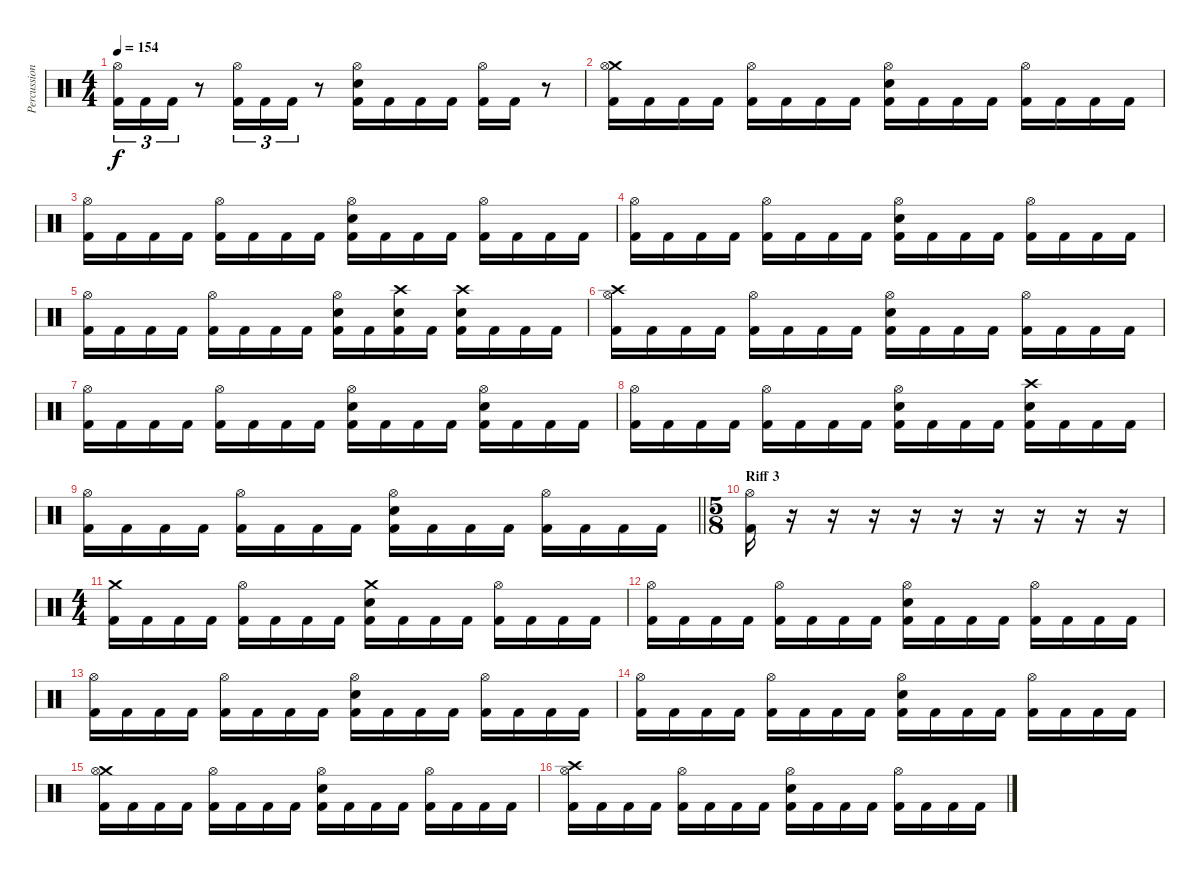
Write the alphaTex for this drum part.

\track ("Percussion" "Percussion") {instrument percussion}
\staff {score}
\articulation defaults
\ts (4 4)
\tempo 154
\clef neutral
\ks c
("Hi-Hat (open)" "Kick (hit) 2").16{tu (3 2) dy f} "Kick (hit) 2".16{tu (3 2)} "Kick (hit) 2".16{tu (3 2)} r.8 ("Hi-Hat (open)" "Kick (hit) 2").16{tu (3 2)} "Kick (hit) 2".16{tu (3 2)} "Kick (hit) 2".16{tu (3 2)} r.8 ("Hi-Hat (open)" "Electric Snare (hit)" "Kick (hit) 2").16 "Kick (hit) 2".16 "Kick (hit) 2".16 "Kick (hit) 2".16 ("Hi-Hat (open)" "Kick (hit) 2").16 "Kick (hit) 2".16 r.8 |
("Crash medium (hit)" "Hi-Hat (open)" "Kick (hit) 2").16 "Kick (hit) 2".16 "Kick (hit) 2".16 "Kick (hit) 2".16 ("Hi-Hat (open)" "Kick (hit) 2").16 "Kick (hit) 2".16 "Kick (hit) 2".16 "Kick (hit) 2".16 ("Hi-Hat (open)" "Electric Snare (hit)" "Kick (hit) 2").16 "Kick (hit) 2".16 "Kick (hit) 2".16 "Kick (hit) 2".16 ("Hi-Hat (open)" "Kick (hit) 2").16 "Kick (hit) 2".16 "Kick (hit) 2".16 "Kick (hit) 2".16 |
("Hi-Hat (open)" "Kick (hit) 2").16 "Kick (hit) 2".16 "Kick (hit) 2".16 "Kick (hit) 2".16 ("Hi-Hat (open)" "Kick (hit) 2").16 "Kick (hit) 2".16 "Kick (hit) 2".16 "Kick (hit) 2".16 ("Hi-Hat (open)" "Electric Snare (hit)" "Kick (hit) 2").16 "Kick (hit) 2".16 "Kick (hit) 2".16 "Kick (hit) 2".16 ("Hi-Hat (open)" "Kick (hit) 2").16 "Kick (hit) 2".16 "Kick (hit) 2".16 "Kick (hit) 2".16 |
("Hi-Hat (open)" "Kick (hit) 2").16 "Kick (hit) 2".16 "Kick (hit) 2".16 "Kick (hit) 2".16 ("Hi-Hat (open)" "Kick (hit) 2").16 "Kick (hit) 2".16 "Kick (hit) 2".16 "Kick (hit) 2".16 ("Hi-Hat (open)" "Electric Snare (hit)" "Kick (hit) 2").16 "Kick (hit) 2".16 "Kick (hit) 2".16 "Kick (hit) 2".16 ("Hi-Hat (open)" "Kick (hit) 2").16 "Kick (hit) 2".16 "Kick (hit) 2".16 "Kick (hit) 2".16 |
("Hi-Hat (open)" "Kick (hit) 2").16 "Kick (hit) 2".16 "Kick (hit) 2".16 "Kick (hit) 2".16 ("Hi-Hat (open)" "Kick (hit) 2").16 "Kick (hit) 2".16 "Kick (hit) 2".16 "Kick (hit) 2".16 ("Hi-Hat (open)" "Electric Snare (hit)" "Kick (hit) 2").16 "Kick (hit) 2".16 ("Crash high (hit)" "Electric Snare (hit)" "Kick (hit) 2").16 "Kick (hit) 2".16 ("Crash high (hit)" "Electric Snare (hit)" "Kick (hit) 2").16 "Kick (hit) 2".16 "Kick (hit) 2".16 "Kick (hit) 2".16 |
("Crash high (hit)" "Hi-Hat (open)" "Kick (hit) 2").16 "Kick (hit) 2".16 "Kick (hit) 2".16 "Kick (hit) 2".16 ("Hi-Hat (open)" "Kick (hit) 2").16 "Kick (hit) 2".16 "Kick (hit) 2".16 "Kick (hit) 2".16 ("Hi-Hat (open)" "Electric Snare (hit)" "Kick (hit) 2").16 "Kick (hit) 2".16 "Kick (hit) 2".16 "Kick (hit) 2".16 ("Hi-Hat (open)" "Kick (hit) 2").16 "Kick (hit) 2".16 "Kick (hit) 2".16 "Kick (hit) 2".16 |
("Hi-Hat (open)" "Kick (hit) 2").16 "Kick (hit) 2".16 "Kick (hit) 2".16 "Kick (hit) 2".16 ("Hi-Hat (open)" "Kick (hit) 2").16 "Kick (hit) 2".16 "Kick (hit) 2".16 "Kick (hit) 2".16 ("Hi-Hat (open)" "Electric Snare (hit)" "Kick (hit) 2").16 "Kick (hit) 2".16 "Kick (hit) 2".16 "Kick (hit) 2".16 ("Hi-Hat (open)" "Electric Snare (hit)" "Kick (hit) 2").16 "Kick (hit) 2".16 "Kick (hit) 2".16 "Kick (hit) 2".16 |
("Hi-Hat (open)" "Kick (hit) 2").16 "Kick (hit) 2".16 "Kick (hit) 2".16 "Kick (hit) 2".16 ("Hi-Hat (open)" "Kick (hit) 2").16 "Kick (hit) 2".16 "Kick (hit) 2".16 "Kick (hit) 2".16 ("Hi-Hat (open)" "Electric Snare (hit)" "Kick (hit) 2").16 "Kick (hit) 2".16 "Kick (hit) 2".16 "Kick (hit) 2".16 ("Crash high (hit)" "Electric Snare (hit)" "Kick (hit) 2").16 "Kick (hit) 2".16 "Kick (hit) 2".16 "Kick (hit) 2".16 |
\barLineRight lightlight
("Hi-Hat (open)" "Kick (hit) 2").16 "Kick (hit) 2".16 "Kick (hit) 2".16 "Kick (hit) 2".16 ("Hi-Hat (open)" "Kick (hit) 2").16 "Kick (hit) 2".16 "Kick (hit) 2".16 "Kick (hit) 2".16 ("Hi-Hat (open)" "Electric Snare (hit)" "Kick (hit) 2").16 "Kick (hit) 2".16 "Kick (hit) 2".16 "Kick (hit) 2".16 ("Hi-Hat (open)" "Kick (hit) 2").16 "Kick (hit) 2".16 "Kick (hit) 2".16 "Kick (hit) 2".16 |
\ts (5 8)
\section ("" "Riff 3")
("Hi-Hat (open)" "Kick (hit) 2").16 r.16 r.16 r.16 r.16 r.16 r.16 r.16 r.16 r.16 |
\ts (4 4)
("Crash medium (hit)" "Kick (hit) 2").16 "Kick (hit) 2".16 "Kick (hit) 2".16 "Kick (hit) 2".16 ("Hi-Hat (open)" "Kick (hit) 2").16 "Kick (hit) 2".16 "Kick (hit) 2".16 "Kick (hit) 2".16 ("Crash medium (hit)" "Electric Snare (hit)" "Kick (hit) 2").16 "Kick (hit) 2".16 "Kick (hit) 2".16 "Kick (hit) 2".16 ("Hi-Hat (open)" "Kick (hit) 2").16 "Kick (hit) 2".16 "Kick (hit) 2".16 "Kick (hit) 2".16 |
("Hi-Hat (open)" "Kick (hit) 2").16 "Kick (hit) 2".16 "Kick (hit) 2".16 "Kick (hit) 2".16 ("Hi-Hat (open)" "Kick (hit) 2").16 "Kick (hit) 2".16 "Kick (hit) 2".16 "Kick (hit) 2".16 ("Hi-Hat (open)" "Electric Snare (hit)" "Kick (hit) 2").16 "Kick (hit) 2".16 "Kick (hit) 2".16 "Kick (hit) 2".16 ("Hi-Hat (open)" "Kick (hit) 2").16 "Kick (hit) 2".16 "Kick (hit) 2".16 "Kick (hit) 2".16 |
("Hi-Hat (open)" "Kick (hit) 2").16 "Kick (hit) 2".16 "Kick (hit) 2".16 "Kick (hit) 2".16 ("Hi-Hat (open)" "Kick (hit) 2").16 "Kick (hit) 2".16 "Kick (hit) 2".16 "Kick (hit) 2".16 ("Hi-Hat (open)" "Electric Snare (hit)" "Kick (hit) 2").16 "Kick (hit) 2".16 "Kick (hit) 2".16 "Kick (hit) 2".16 ("Hi-Hat (open)" "Kick (hit) 2").16 "Kick (hit) 2".16 "Kick (hit) 2".16 "Kick (hit) 2".16 |
("Hi-Hat (open)" "Kick (hit) 2").16 "Kick (hit) 2".16 "Kick (hit) 2".16 "Kick (hit) 2".16 ("Hi-Hat (open)" "Kick (hit) 2").16 "Kick (hit) 2".16 "Kick (hit) 2".16 "Kick (hit) 2".16 ("Hi-Hat (open)" "Electric Snare (hit)" "Kick (hit) 2").16 "Kick (hit) 2".16 "Kick (hit) 2".16 "Kick (hit) 2".16 ("Hi-Hat (open)" "Kick (hit) 2").16 "Kick (hit) 2".16 "Kick (hit) 2".16 "Kick (hit) 2".16 |
("Crash medium (hit)" "Hi-Hat (open)" "Kick (hit) 2").16 "Kick (hit) 2".16 "Kick (hit) 2".16 "Kick (hit) 2".16 ("Hi-Hat (open)" "Kick (hit) 2").16 "Kick (hit) 2".16 "Kick (hit) 2".16 "Kick (hit) 2".16 ("Hi-Hat (open)" "Electric Snare (hit)" "Kick (hit) 2").16 "Kick (hit) 2".16 "Kick (hit) 2".16 "Kick (hit) 2".16 ("Hi-Hat (open)" "Kick (hit) 2").16 "Kick (hit) 2".16 "Kick (hit) 2".16 "Kick (hit) 2".16 |
("Crash high (hit)" "Hi-Hat (open)" "Kick (hit) 2").16 "Kick (hit) 2".16 "Kick (hit) 2".16 "Kick (hit) 2".16 ("Hi-Hat (open)" "Kick (hit) 2").16 "Kick (hit) 2".16 "Kick (hit) 2".16 "Kick (hit) 2".16 ("Hi-Hat (open)" "Electric Snare (hit)" "Kick (hit) 2").16 "Kick (hit) 2".16 "Kick (hit) 2".16 "Kick (hit) 2".16 ("Hi-Hat (open)" "Kick (hit) 2").16 "Kick (hit) 2".16 "Kick (hit) 2".16 "Kick (hit) 2".16
